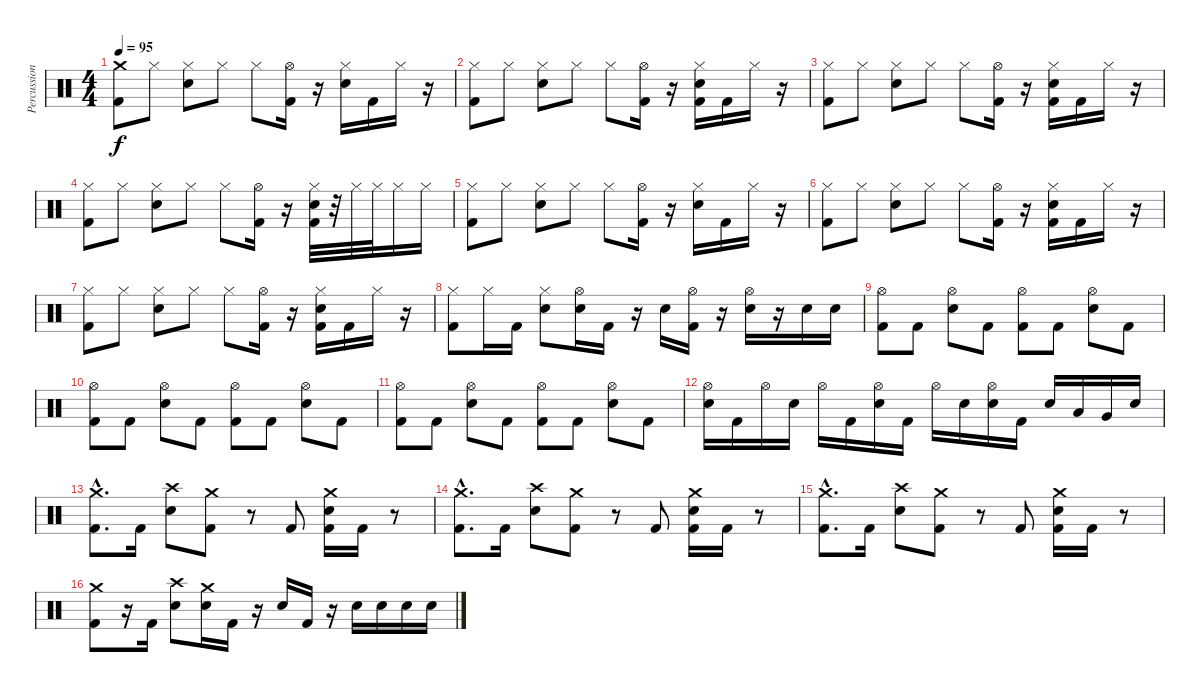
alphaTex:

\track ("Percussion" "Percussion") {instrument percussion}
\staff {score}
\articulation defaults
\ts (4 4)
\tempo 95
\clef neutral
\ks c
("Crash medium (hit)" "Kick (hit) 2").8{dy f} "Hi-Hat (closed)".8 ("Hi-Hat (closed)" "Electric Snare (hit)").8 "Hi-Hat (closed)".8 "Hi-Hat (closed)".8 ("Hi-Hat (open)" "Kick (hit) 2").16 r.16 ("Hi-Hat (closed)" "Electric Snare (hit)").16 "Kick (hit) 2".16 "Hi-Hat (closed)".16 r.16 |
("Hi-Hat (closed)" "Kick (hit) 2").8 "Hi-Hat (closed)".8 ("Hi-Hat (closed)" "Electric Snare (hit)").8 "Hi-Hat (closed)".8 "Hi-Hat (closed)".8 ("Hi-Hat (open)" "Kick (hit) 2").16 r.16 ("Hi-Hat (closed)" "Electric Snare (hit)" "Kick (hit) 2").16 "Kick (hit) 2".16 "Hi-Hat (closed)".16 r.16 |
("Hi-Hat (closed)" "Kick (hit) 2").8 "Hi-Hat (closed)".8 ("Hi-Hat (closed)" "Electric Snare (hit)").8 "Hi-Hat (closed)".8 "Hi-Hat (closed)".8 ("Hi-Hat (open)" "Kick (hit) 2").16 r.16 ("Hi-Hat (closed)" "Electric Snare (hit)" "Kick (hit) 2").16 "Kick (hit) 2".16 "Hi-Hat (closed)".16 r.16 |
("Hi-Hat (closed)" "Kick (hit) 2").8 "Hi-Hat (closed)".8 ("Hi-Hat (closed)" "Electric Snare (hit)").8 "Hi-Hat (closed)".8 "Hi-Hat (closed)".8 ("Hi-Hat (open)" "Kick (hit) 2").16 r.16 ("Hi-Hat (closed)" "Electric Snare (hit)" "Kick (hit) 2").32 r.32 "Hi-Hat (closed)".32 "Hi-Hat (closed)".32 "Hi-Hat (closed)".16 "Hi-Hat (closed)".16 |
("Hi-Hat (closed)" "Kick (hit) 2").8 "Hi-Hat (closed)".8 ("Hi-Hat (closed)" "Electric Snare (hit)").8 "Hi-Hat (closed)".8 "Hi-Hat (closed)".8 ("Hi-Hat (open)" "Kick (hit) 2").16 r.16 ("Hi-Hat (closed)" "Electric Snare (hit)").16 "Kick (hit) 2".16 "Hi-Hat (closed)".16 r.16 |
("Hi-Hat (closed)" "Kick (hit) 2").8 "Hi-Hat (closed)".8 ("Hi-Hat (closed)" "Electric Snare (hit)").8 "Hi-Hat (closed)".8 "Hi-Hat (closed)".8 ("Hi-Hat (open)" "Kick (hit) 2").16 r.16 ("Hi-Hat (closed)" "Electric Snare (hit)" "Kick (hit) 2").16 "Kick (hit) 2".16 "Hi-Hat (closed)".16 r.16 |
("Hi-Hat (closed)" "Kick (hit) 2").8 "Hi-Hat (closed)".8 ("Hi-Hat (closed)" "Electric Snare (hit)").8 "Hi-Hat (closed)".8 "Hi-Hat (closed)".8 ("Hi-Hat (open)" "Kick (hit) 2").16 r.16 ("Hi-Hat (closed)" "Electric Snare (hit)" "Kick (hit) 2").16 "Kick (hit) 2".16 "Hi-Hat (closed)".16 r.16 |
("Hi-Hat (closed)" "Kick (hit) 2").8 "Hi-Hat (closed)".16 "Kick (hit) 2".16 ("Hi-Hat (closed)" "Electric Snare (hit)").8 ("Hi-Hat (open)" "Electric Snare (hit)").16 "Kick (hit) 2".16 r.16 "Electric Snare (hit)".16 ("Hi-Hat (open)" "Kick (hit) 2").16 r.16 ("Hi-Hat (open)" "Electric Snare (hit)").16 r.16 "Electric Snare (hit)".16 "Electric Snare (hit)".16 |
("Hi-Hat (open)" "Kick (hit) 2").8 "Kick (hit) 2".8 ("Hi-Hat (open)" "Electric Snare (hit)").8 "Kick (hit) 2".8 ("Hi-Hat (open)" "Kick (hit) 2").8 "Kick (hit) 2".8 ("Hi-Hat (open)" "Electric Snare (hit)").8 "Kick (hit) 2".8 |
("Hi-Hat (open)" "Kick (hit) 2").8 "Kick (hit) 2".8 ("Hi-Hat (open)" "Electric Snare (hit)").8 "Kick (hit) 2".8 ("Hi-Hat (open)" "Kick (hit) 2").8 "Kick (hit) 2".8 ("Hi-Hat (open)" "Electric Snare (hit)").8 "Kick (hit) 2".8 |
("Hi-Hat (open)" "Kick (hit) 2").8 "Kick (hit) 2".8 ("Hi-Hat (open)" "Electric Snare (hit)").8 "Kick (hit) 2".8 ("Hi-Hat (open)" "Kick (hit) 2").8 "Kick (hit) 2".8 ("Hi-Hat (open)" "Electric Snare (hit)").8 "Kick (hit) 2".8 |
("Hi-Hat (open)" "Electric Snare (hit)").16 "Kick (hit) 2".16 "Hi-Hat (open)".16 "Electric Snare (hit)".16 "Hi-Hat (open)".16 "Kick (hit) 2".16 ("Hi-Hat (open)" "Electric Snare (hit)").16 "Kick (hit) 2".16 "Hi-Hat (open)".16 "Electric Snare (hit)".16 ("Hi-Hat (open)" "Electric Snare (hit)").16 "Kick (hit) 2".16 "Electric Snare (hit)".16 "Low Tom (hit)".16 "Very Low Tom (hit)".16 "Electric Snare (hit)".16 |
("Crash medium (hit)"{hac} "Kick (hit) 2"{hac}).8{d} "Kick (hit) 2".16 ("Crash high (hit)" "Electric Snare (hit)").8 ("Crash medium (hit)" "Kick (hit) 2").8 r.8 "Kick (hit) 2".8 ("Crash medium (hit)" "Electric Snare (hit)" "Kick (hit) 2").16 "Kick (hit) 2".16 r.8 |
("Crash medium (hit)"{hac} "Kick (hit) 2"{hac}).8{d} "Kick (hit) 2".16 ("Crash high (hit)" "Electric Snare (hit)").8 ("Crash medium (hit)" "Kick (hit) 2").8 r.8 "Kick (hit) 2".8 ("Crash medium (hit)" "Electric Snare (hit)" "Kick (hit) 2").16 "Kick (hit) 2".16 r.8 |
("Crash medium (hit)"{hac} "Kick (hit) 2"{hac}).8{d} "Kick (hit) 2".16 ("Crash high (hit)" "Electric Snare (hit)").8 ("Crash medium (hit)" "Kick (hit) 2").8 r.8 "Kick (hit) 2".8 ("Crash medium (hit)" "Electric Snare (hit)" "Kick (hit) 2").16 "Kick (hit) 2".16 r.8 |
("Crash medium (hit)" "Kick (hit) 2").8 r.16 "Kick (hit) 2".16 ("Crash high (hit)" "Electric Snare (hit)").8 ("Crash medium (hit)" "Electric Snare (hit)").16 "Kick (hit) 2".16 r.16 "Electric Snare (hit)".16 "Kick (hit) 2".16 r.16 "Electric Snare (hit)".16 "Electric Snare (hit)".16 "Electric Snare (hit)".16 "Electric Snare (hit)".16
